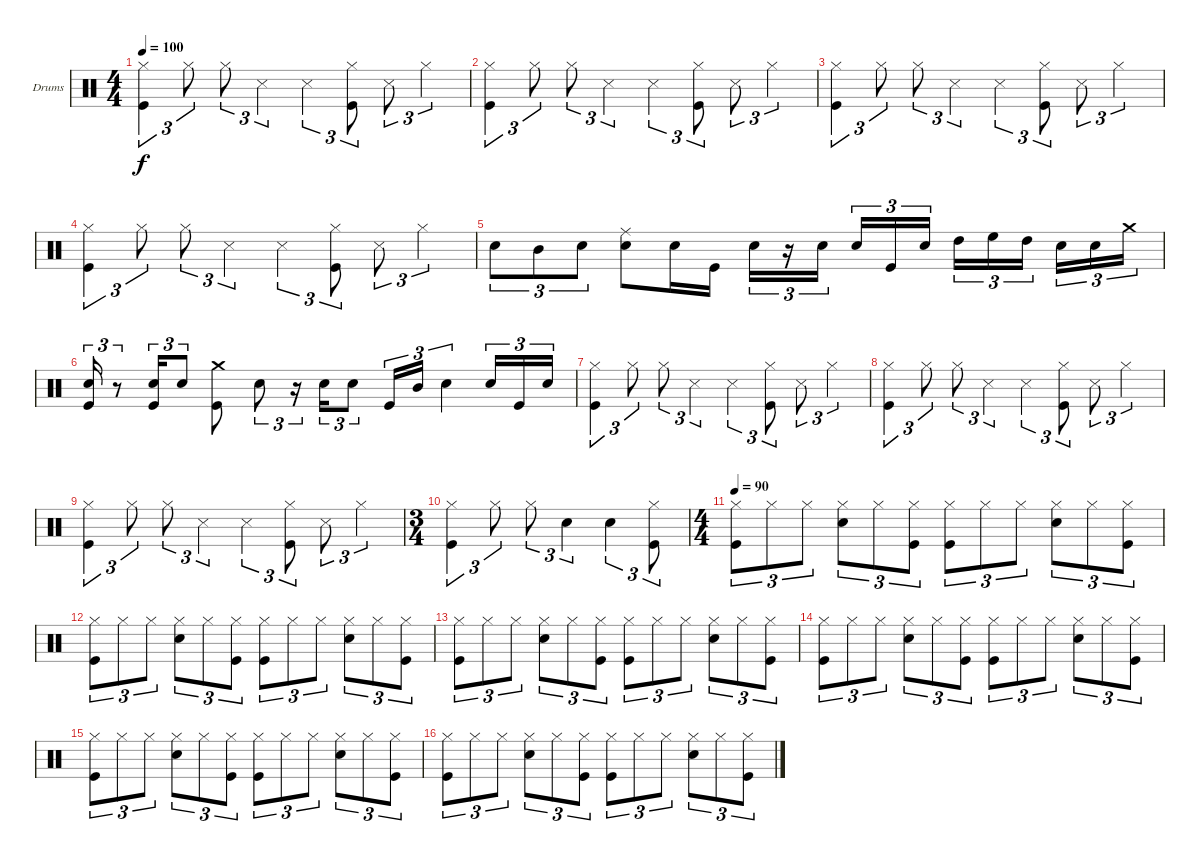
\defaultSystemsLayout 4
\bracketExtendMode groupsimilarinstruments
\firstSystemTrackNameOrientation horizontal
\otherSystemsTrackNameOrientation horizontal
\track ("Drumkit" "Drums") {instrument percussion}
\staff {score}
\articulation defaults
\ts (4 4)
\tempo 100
\clef neutral
\ks c
("Hi-Hat (closed)" "Kick (hit)").4{tu (3 2) dy f} "Hi-Hat (closed)".8{tu (3 2)} "Hi-Hat (closed)".8{tu (3 2)} "Snare (side stick) 3".4{tu (3 2)} "Snare (side stick) 3".4{tu (3 2)} ("Kick (hit)" "Hi-Hat (closed)").8{tu (3 2)} "Snare (side stick) 3".8{tu (3 2)} "Hi-Hat (closed)".4{tu (3 2)} |
("Hi-Hat (closed)" "Kick (hit)").4{tu (3 2)} "Hi-Hat (closed)".8{tu (3 2)} "Hi-Hat (closed)".8{tu (3 2)} "Snare (side stick) 3".4{tu (3 2)} "Snare (side stick) 3".4{tu (3 2)} ("Kick (hit)" "Hi-Hat (closed)").8{tu (3 2)} "Snare (side stick) 3".8{tu (3 2)} "Hi-Hat (closed)".4{tu (3 2)} |
("Hi-Hat (closed)" "Kick (hit)").4{tu (3 2)} "Hi-Hat (closed)".8{tu (3 2)} "Hi-Hat (closed)".8{tu (3 2)} "Snare (side stick) 3".4{tu (3 2)} "Snare (side stick) 3".4{tu (3 2)} ("Kick (hit)" "Hi-Hat (closed)").8{tu (3 2)} "Snare (side stick) 3".8{tu (3 2)} "Hi-Hat (closed)".4{tu (3 2)} |
("Hi-Hat (closed)" "Kick (hit)").4{tu (3 2)} "Hi-Hat (closed)".8{tu (3 2)} "Hi-Hat (closed)".8{tu (3 2)} "Snare (side stick) 3".4{tu (3 2)} "Snare (side stick) 3".4{tu (3 2)} ("Kick (hit)" "Hi-Hat (closed)").8{tu (3 2)} "Snare (side stick) 3".8{tu (3 2)} "Hi-Hat (closed)".4{tu (3 2)} |
"Snare (hit) 2".8{tu (3 2)} "Mid Tom (hit)".8{tu (3 2)} "Snare (hit) 2".8{tu (3 2)} ("Snare (hit) 2" "Ride (middle)").8 "Snare (hit) 2".16 "Kick (hit)".16 "Snare (hit) 2".16{tu (3 2)} r.16{tu (3 2)} "Snare (hit) 2".16{tu (3 2)} "Snare (hit) 2".16{tu (3 2)} "Kick (hit)".16{tu (3 2)} "Snare (hit) 2".16{tu (3 2)} "High Tom (hit)".16{tu (3 2)} "High Floor Tom (hit)".16{tu (3 2)} "High Tom (hit)".16{tu (3 2)} "Snare (hit) 2".16{tu (3 2)} "Snare (hit) 2".16{tu (3 2)} "Crash medium (hit)".16{tu (3 2)} |
("Snare (hit) 2" "Kick (hit)").16{tu (3 2)} r.8{tu (3 2)} ("Snare (hit) 2" "Kick (hit)").16{tu (3 2)} "Snare (hit) 2".8{tu (3 2)} ("Kick (hit)" "Crash medium (hit)").8 "Snare (hit) 2".8{tu (3 2)} r.16{tu (3 2)} "Snare (hit) 2".16{tu (3 2)} "Snare (hit) 2".8{tu (3 2)} "Kick (hit)".16{tu (3 2)} "Mid Tom (hit)".16{tu (3 2)} "Snare (hit) 2".4{tu (3 2)} "Snare (hit) 2".16{tu (3 2)} "Kick (hit)".16{tu (3 2)} "Snare (hit) 2".16{tu (3 2)} |
("Hi-Hat (closed)" "Kick (hit)").4{tu (3 2)} "Hi-Hat (closed)".8{tu (3 2)} "Hi-Hat (closed)".8{tu (3 2)} "Snare (side stick) 3".4{tu (3 2)} "Snare (side stick) 3".4{tu (3 2)} ("Kick (hit)" "Hi-Hat (closed)").8{tu (3 2)} "Snare (side stick) 3".8{tu (3 2)} "Hi-Hat (closed)".4{tu (3 2)} |
("Hi-Hat (closed)" "Kick (hit)").4{tu (3 2)} "Hi-Hat (closed)".8{tu (3 2)} "Hi-Hat (closed)".8{tu (3 2)} "Snare (side stick) 3".4{tu (3 2)} "Snare (side stick) 3".4{tu (3 2)} ("Kick (hit)" "Hi-Hat (closed)").8{tu (3 2)} "Snare (side stick) 3".8{tu (3 2)} "Hi-Hat (closed)".4{tu (3 2)} |
("Hi-Hat (closed)" "Kick (hit)").4{tu (3 2)} "Hi-Hat (closed)".8{tu (3 2)} "Hi-Hat (closed)".8{tu (3 2)} "Snare (side stick) 3".4{tu (3 2)} "Snare (side stick) 3".4{tu (3 2)} ("Kick (hit)" "Hi-Hat (closed)").8{tu (3 2)} "Snare (side stick) 3".8{tu (3 2)} "Hi-Hat (closed)".4{tu (3 2)} |
\ts (3 4)
("Hi-Hat (closed)" "Kick (hit)").4{tu (3 2)} "Hi-Hat (closed)".8{tu (3 2)} "Hi-Hat (closed)".8{tu (3 2)} "Snare (hit) 2".4{tu (3 2)} "Snare (hit) 2".4{tu (3 2)} ("Kick (hit)" "Hi-Hat (closed)").8{tu (3 2)} |
\ts (4 4)
\tempo 90
("Hi-Hat (closed)" "Kick (hit)").8{tu (3 2)} "Hi-Hat (closed)".8{tu (3 2)} "Hi-Hat (closed)".8{tu (3 2)} ("Hi-Hat (closed)" "Snare (hit) 2").8{tu (3 2)} "Hi-Hat (closed)".8{tu (3 2)} ("Hi-Hat (closed)" "Kick (hit)").8{tu (3 2)} ("Hi-Hat (closed)" "Kick (hit)").8{tu (3 2)} "Hi-Hat (closed)".8{tu (3 2)} "Hi-Hat (closed)".8{tu (3 2)} ("Hi-Hat (closed)" "Snare (hit) 2").8{tu (3 2)} "Hi-Hat (closed)".8{tu (3 2)} ("Hi-Hat (closed)" "Kick (hit)").8{tu (3 2)} |
("Hi-Hat (closed)" "Kick (hit)").8{tu (3 2)} "Hi-Hat (closed)".8{tu (3 2)} "Hi-Hat (closed)".8{tu (3 2)} ("Hi-Hat (closed)" "Snare (hit) 2").8{tu (3 2)} "Hi-Hat (closed)".8{tu (3 2)} ("Hi-Hat (closed)" "Kick (hit)").8{tu (3 2)} ("Hi-Hat (closed)" "Kick (hit)").8{tu (3 2)} "Hi-Hat (closed)".8{tu (3 2)} "Hi-Hat (closed)".8{tu (3 2)} ("Hi-Hat (closed)" "Snare (hit) 2").8{tu (3 2)} "Hi-Hat (closed)".8{tu (3 2)} ("Hi-Hat (closed)" "Kick (hit)").8{tu (3 2)} |
("Hi-Hat (closed)" "Kick (hit)").8{tu (3 2)} "Hi-Hat (closed)".8{tu (3 2)} "Hi-Hat (closed)".8{tu (3 2)} ("Hi-Hat (closed)" "Snare (hit) 2").8{tu (3 2)} "Hi-Hat (closed)".8{tu (3 2)} ("Hi-Hat (closed)" "Kick (hit)").8{tu (3 2)} ("Hi-Hat (closed)" "Kick (hit)").8{tu (3 2)} "Hi-Hat (closed)".8{tu (3 2)} "Hi-Hat (closed)".8{tu (3 2)} ("Hi-Hat (closed)" "Snare (hit) 2").8{tu (3 2)} "Hi-Hat (closed)".8{tu (3 2)} ("Hi-Hat (closed)" "Kick (hit)").8{tu (3 2)} |
("Hi-Hat (closed)" "Kick (hit)").8{tu (3 2)} "Hi-Hat (closed)".8{tu (3 2)} "Hi-Hat (closed)".8{tu (3 2)} ("Hi-Hat (closed)" "Snare (hit) 2").8{tu (3 2)} "Hi-Hat (closed)".8{tu (3 2)} ("Hi-Hat (closed)" "Kick (hit)").8{tu (3 2)} ("Hi-Hat (closed)" "Kick (hit)").8{tu (3 2)} "Hi-Hat (closed)".8{tu (3 2)} "Hi-Hat (closed)".8{tu (3 2)} ("Hi-Hat (closed)" "Snare (hit) 2").8{tu (3 2)} "Hi-Hat (closed)".8{tu (3 2)} ("Hi-Hat (closed)" "Kick (hit)").8{tu (3 2)} |
("Hi-Hat (closed)" "Kick (hit)").8{tu (3 2)} "Hi-Hat (closed)".8{tu (3 2)} "Hi-Hat (closed)".8{tu (3 2)} ("Hi-Hat (closed)" "Snare (hit) 2").8{tu (3 2)} "Hi-Hat (closed)".8{tu (3 2)} ("Hi-Hat (closed)" "Kick (hit)").8{tu (3 2)} ("Hi-Hat (closed)" "Kick (hit)").8{tu (3 2)} "Hi-Hat (closed)".8{tu (3 2)} "Hi-Hat (closed)".8{tu (3 2)} ("Hi-Hat (closed)" "Snare (hit) 2").8{tu (3 2)} "Hi-Hat (closed)".8{tu (3 2)} ("Hi-Hat (closed)" "Kick (hit)").8{tu (3 2)} |
("Hi-Hat (closed)" "Kick (hit)").8{tu (3 2)} "Hi-Hat (closed)".8{tu (3 2)} "Hi-Hat (closed)".8{tu (3 2)} ("Hi-Hat (closed)" "Snare (hit) 2").8{tu (3 2)} "Hi-Hat (closed)".8{tu (3 2)} ("Hi-Hat (closed)" "Kick (hit)").8{tu (3 2)} ("Hi-Hat (closed)" "Kick (hit)").8{tu (3 2)} "Hi-Hat (closed)".8{tu (3 2)} "Hi-Hat (closed)".8{tu (3 2)} ("Hi-Hat (closed)" "Snare (hit) 2").8{tu (3 2)} "Hi-Hat (closed)".8{tu (3 2)} ("Hi-Hat (closed)" "Kick (hit)").8{tu (3 2)}
